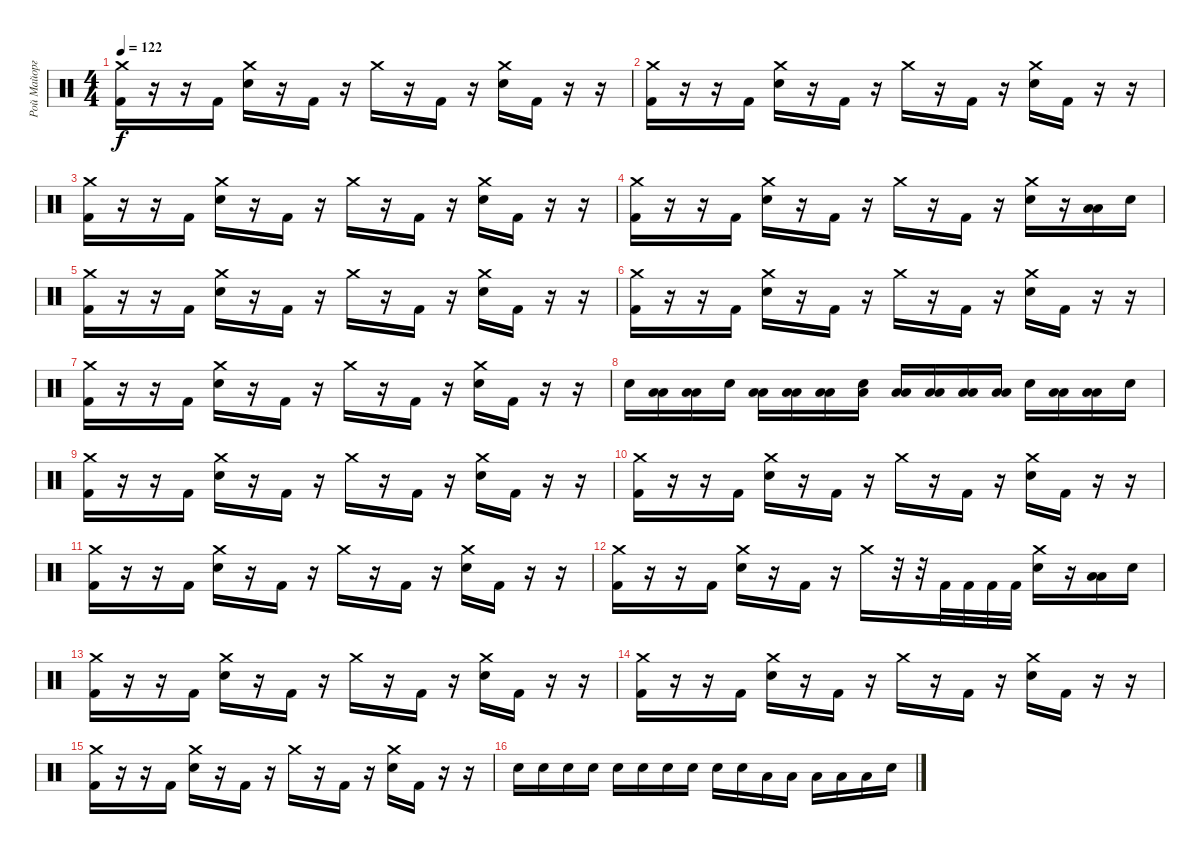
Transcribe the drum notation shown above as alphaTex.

\track ("Рой Майорга" "Рой Майорг") {instrument percussion}
\staff {score}
\articulation defaults
\ts (4 4)
\tempo 122
\clef neutral
\ks c
("Crash medium (hit)" "Kick (hit) 2").16{dy f} r.16 r.16 "Kick (hit) 2".16 ("Crash medium (hit)" "Electric Snare (hit)").16 r.16 "Kick (hit) 2".16 r.16 "Crash medium (hit)".16 r.16 "Kick (hit) 2".16 r.16 ("Crash medium (hit)" "Electric Snare (hit)").16 "Kick (hit) 2".16 r.16 r.16 |
("Crash medium (hit)" "Kick (hit) 2").16 r.16 r.16 "Kick (hit) 2".16 ("Crash medium (hit)" "Electric Snare (hit)").16 r.16 "Kick (hit) 2".16 r.16 "Crash medium (hit)".16 r.16 "Kick (hit) 2".16 r.16 ("Crash medium (hit)" "Electric Snare (hit)").16 "Kick (hit) 2".16 r.16 r.16 |
("Crash medium (hit)" "Kick (hit) 2").16 r.16 r.16 "Kick (hit) 2".16 ("Crash medium (hit)" "Electric Snare (hit)").16 r.16 "Kick (hit) 2".16 r.16 "Crash medium (hit)".16 r.16 "Kick (hit) 2".16 r.16 ("Crash medium (hit)" "Electric Snare (hit)").16 "Kick (hit) 2".16 r.16 r.16 |
("Crash medium (hit)" "Kick (hit) 2").16 r.16 r.16 "Kick (hit) 2".16 ("Crash medium (hit)" "Electric Snare (hit)").16 r.16 "Kick (hit) 2".16 r.16 "Crash medium (hit)".16 r.16 "Kick (hit) 2".16 r.16 ("Crash medium (hit)" "Electric Snare (hit)").16 r.16 ("Low Tom (hit)" "Low Tom (hit)").16 "Electric Snare (hit)".16 |
("Crash medium (hit)" "Kick (hit) 2").16 r.16 r.16 "Kick (hit) 2".16 ("Crash medium (hit)" "Electric Snare (hit)").16 r.16 "Kick (hit) 2".16 r.16 "Crash medium (hit)".16 r.16 "Kick (hit) 2".16 r.16 ("Crash medium (hit)" "Electric Snare (hit)").16 "Kick (hit) 2".16 r.16 r.16 |
("Crash medium (hit)" "Kick (hit) 2").16 r.16 r.16 "Kick (hit) 2".16 ("Crash medium (hit)" "Electric Snare (hit)").16 r.16 "Kick (hit) 2".16 r.16 "Crash medium (hit)".16 r.16 "Kick (hit) 2".16 r.16 ("Crash medium (hit)" "Electric Snare (hit)").16 "Kick (hit) 2".16 r.16 r.16 |
("Crash medium (hit)" "Kick (hit) 2").16 r.16 r.16 "Kick (hit) 2".16 ("Crash medium (hit)" "Electric Snare (hit)").16 r.16 "Kick (hit) 2".16 r.16 "Crash medium (hit)".16 r.16 "Kick (hit) 2".16 r.16 ("Crash medium (hit)" "Electric Snare (hit)").16 "Kick (hit) 2".16 r.16 r.16 |
"Electric Snare (hit)".16 ("Low Tom (hit)" "Low Tom (hit)").16 ("Low Tom (hit)" "Low Tom (hit)").16 "Electric Snare (hit)".16 ("Low Tom (hit)" "Low Tom (hit)").16 ("Low Tom (hit)" "Low Tom (hit)").16 ("Low Tom (hit)" "Low Tom (hit)").16 ("Low Tom (hit)" "Electric Snare (hit)").16 ("Low Tom (hit)" "Low Tom (hit)").16 ("Low Tom (hit)" "Low Tom (hit)").16 ("Low Tom (hit)" "Low Tom (hit)").16 ("Low Tom (hit)" "Low Tom (hit)").16 "Electric Snare (hit)".16 ("Low Tom (hit)" "Low Tom (hit)").16 ("Low Tom (hit)" "Low Tom (hit)").16 "Electric Snare (hit)".16 |
("Crash medium (hit)" "Kick (hit) 2").16 r.16 r.16 "Kick (hit) 2".16 ("Crash medium (hit)" "Electric Snare (hit)").16 r.16 "Kick (hit) 2".16 r.16 "Crash medium (hit)".16 r.16 "Kick (hit) 2".16 r.16 ("Crash medium (hit)" "Electric Snare (hit)").16 "Kick (hit) 2".16 r.16 r.16 |
("Crash medium (hit)" "Kick (hit) 2").16 r.16 r.16 "Kick (hit) 2".16 ("Crash medium (hit)" "Electric Snare (hit)").16 r.16 "Kick (hit) 2".16 r.16 "Crash medium (hit)".16 r.16 "Kick (hit) 2".16 r.16 ("Crash medium (hit)" "Electric Snare (hit)").16 "Kick (hit) 2".16 r.16 r.16 |
("Crash medium (hit)" "Kick (hit) 2").16 r.16 r.16 "Kick (hit) 2".16 ("Crash medium (hit)" "Electric Snare (hit)").16 r.16 "Kick (hit) 2".16 r.16 "Crash medium (hit)".16 r.16 "Kick (hit) 2".16 r.16 ("Crash medium (hit)" "Electric Snare (hit)").16 "Kick (hit) 2".16 r.16 r.16 |
("Crash medium (hit)" "Kick (hit) 2").16 r.16 r.16 "Kick (hit) 2".16 ("Crash medium (hit)" "Electric Snare (hit)").16 r.16 "Kick (hit) 2".16 r.16 "Crash medium (hit)".16 r.32 r.32 "Kick (hit) 2".32 "Kick (hit) 2".32 "Kick (hit) 2".32 "Kick (hit) 2".32 ("Crash medium (hit)" "Electric Snare (hit)").16 r.16 ("Low Tom (hit)" "Low Tom (hit)").16 "Electric Snare (hit)".16 |
("Crash medium (hit)" "Kick (hit) 2").16 r.16 r.16 "Kick (hit) 2".16 ("Crash medium (hit)" "Electric Snare (hit)").16 r.16 "Kick (hit) 2".16 r.16 "Crash medium (hit)".16 r.16 "Kick (hit) 2".16 r.16 ("Crash medium (hit)" "Electric Snare (hit)").16 "Kick (hit) 2".16 r.16 r.16 |
("Crash medium (hit)" "Kick (hit) 2").16 r.16 r.16 "Kick (hit) 2".16 ("Crash medium (hit)" "Electric Snare (hit)").16 r.16 "Kick (hit) 2".16 r.16 "Crash medium (hit)".16 r.16 "Kick (hit) 2".16 r.16 ("Crash medium (hit)" "Electric Snare (hit)").16 "Kick (hit) 2".16 r.16 r.16 |
("Crash medium (hit)" "Kick (hit) 2").16 r.16 r.16 "Kick (hit) 2".16 ("Crash medium (hit)" "Electric Snare (hit)").16 r.16 "Kick (hit) 2".16 r.16 "Crash medium (hit)".16 r.16 "Kick (hit) 2".16 r.16 ("Crash medium (hit)" "Electric Snare (hit)").16 "Kick (hit) 2".16 r.16 r.16 |
"Electric Snare (hit)".16 "Electric Snare (hit)".16 "Electric Snare (hit)".16 "Electric Snare (hit)".16 "Electric Snare (hit)".16 "Electric Snare (hit)".16 "Electric Snare (hit)".16 "Electric Snare (hit)".16 "Electric Snare (hit)".16 "Electric Snare (hit)".16 "Low Tom (hit)".16 "Low Tom (hit)".16 "Low Tom (hit)".16 "Low Tom (hit)".16 "Low Tom (hit)".16 "Electric Snare (hit)".16
